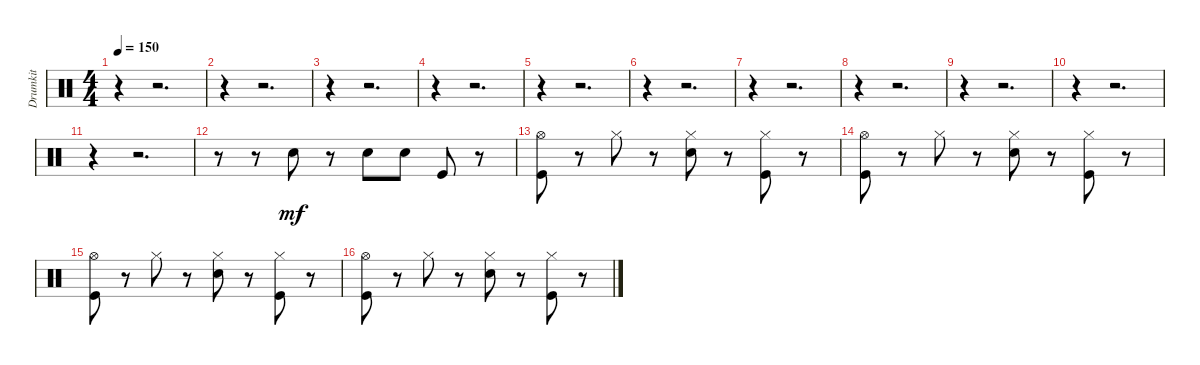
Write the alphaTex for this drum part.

\track ("Drumkit" "Drumkit") {instrument percussion}
\staff {score}
\articulation defaults
\ts (4 4)
\tempo 150
\clef neutral
\ks c
r.4{dy mf} r.2{d} |
r.4 r.2{d} |
r.4 r.2{d} |
r.4 r.2{d} |
r.4 r.2{d} |
r.4 r.2{d} |
r.4 r.2{d} |
r.4 r.2{d} |
r.4 r.2{d} |
r.4 r.2{d} |
r.4 r.2{d} |
r.8 r.8 "Snare (hit) 2".8 r.8 "Snare (hit) 2".8 "Snare (hit) 2".8 "Kick (hit)".8 r.8 |
("Kick (hit)" "Hi-Hat (open)").8 r.8 "Hi-Hat (closed)".8 r.8 ("Snare (hit) 2" "Hi-Hat (closed)").8 r.8 ("Kick (hit)" "Hi-Hat (closed)").8 r.8 |
("Kick (hit)" "Hi-Hat (open)").8 r.8 "Hi-Hat (closed)".8 r.8 ("Snare (hit) 2" "Hi-Hat (closed)").8 r.8 ("Kick (hit)" "Hi-Hat (closed)").8 r.8 |
("Kick (hit)" "Hi-Hat (open)").8 r.8 "Hi-Hat (closed)".8 r.8 ("Snare (hit) 2" "Hi-Hat (closed)").8 r.8 ("Kick (hit)" "Hi-Hat (closed)").8 r.8 |
("Kick (hit)" "Hi-Hat (open)").8 r.8 "Hi-Hat (closed)".8 r.8 ("Snare (hit) 2" "Hi-Hat (closed)").8 r.8 ("Kick (hit)" "Hi-Hat (closed)").8 r.8
